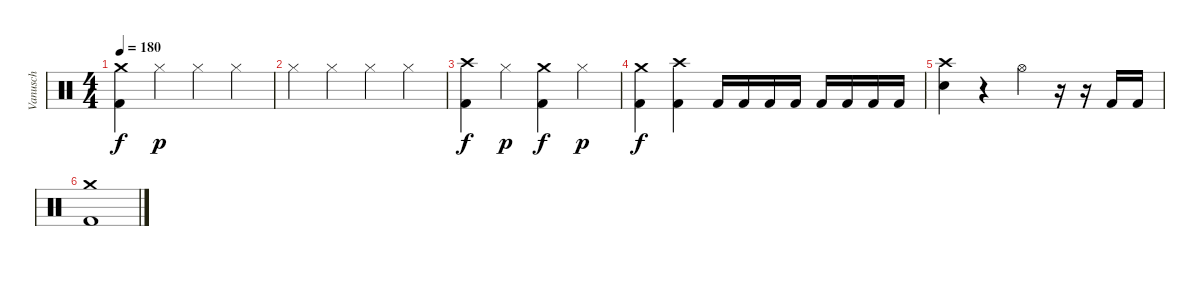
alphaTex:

\track ("Vanusch" "Vanusch") {instrument percussion}
\staff {score}
\articulation defaults
\ts (4 4)
\tempo 180
\clef neutral
\ks c
("Crash medium (hit)" "Kick (hit) 2").4{dy f} "Hi-Hat (closed)".4{dy p} "Hi-Hat (closed)".4 "Hi-Hat (closed)".4 |
"Hi-Hat (closed)".4 "Hi-Hat (closed)".4 "Hi-Hat (closed)".4 "Hi-Hat (closed)".4 |
("Crash high (hit)" "Kick (hit) 2").4{dy f} "Hi-Hat (closed)".4{dy p} ("Crash medium (hit)" "Kick (hit) 2").4{dy f} "Hi-Hat (closed)".4{dy p} |
("Crash medium (hit)" "Kick (hit) 2").4{dy f} ("Crash high (hit)" "Kick (hit) 2").4 "Kick (hit) 2".16 "Kick (hit) 2".16 "Kick (hit) 2".16 "Kick (hit) 2".16 "Kick (hit) 2".16 "Kick (hit) 2".16 "Kick (hit) 2".16 "Kick (hit) 2".16 |
("Crash high (hit)" "Snare (hit) 2").4 r.4 "Hi-Hat (open)".4 r.16 r.16 "Kick (hit) 2".16 "Kick (hit) 2".16 |
("Crash medium (hit)" "Kick (hit) 2").1
